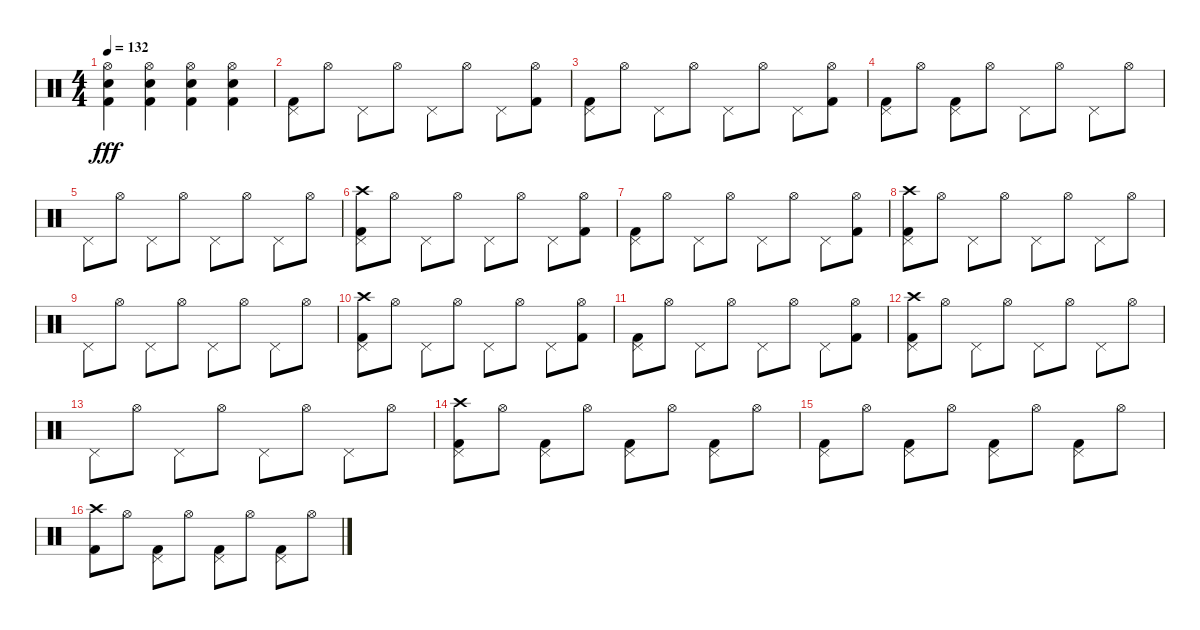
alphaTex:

\track "" {instrument percussion}
\staff {score}
\articulation defaults
\ts (4 4)
\tempo 132
\clef neutral
\ks c
("Hi-Hat (open)" "Snare (hit) 2" "Kick (hit) 2").4{dy fff} ("Hi-Hat (open)" "Snare (hit) 2" "Kick (hit) 2").4 ("Hi-Hat (open)" "Snare (hit) 2" "Kick (hit) 2").4 ("Hi-Hat (open)" "Snare (hit) 2" "Kick (hit) 2").4 |
("Pedal Hi-Hat (hit)" "Kick (hit) 2").8 "Hi-Hat (open)".8 "Pedal Hi-Hat (hit)".8 "Hi-Hat (open)".8 "Pedal Hi-Hat (hit)".8 "Hi-Hat (open)".8 "Pedal Hi-Hat (hit)".8 ("Hi-Hat (open)" "Kick (hit) 2").8 |
("Pedal Hi-Hat (hit)" "Kick (hit) 2").8 "Hi-Hat (open)".8 "Pedal Hi-Hat (hit)".8 "Hi-Hat (open)".8 "Pedal Hi-Hat (hit)".8 "Hi-Hat (open)".8 "Pedal Hi-Hat (hit)".8 ("Hi-Hat (open)" "Kick (hit) 2").8 |
("Pedal Hi-Hat (hit)" "Kick (hit) 2").8 "Hi-Hat (open)".8 ("Pedal Hi-Hat (hit)" "Kick (hit) 2").8 "Hi-Hat (open)".8 "Pedal Hi-Hat (hit)".8 "Hi-Hat (open)".8 "Pedal Hi-Hat (hit)".8 "Hi-Hat (open)".8 |
"Pedal Hi-Hat (hit)".8 "Hi-Hat (open)".8 "Pedal Hi-Hat (hit)".8 "Hi-Hat (open)".8 "Pedal Hi-Hat (hit)".8 "Hi-Hat (open)".8 "Pedal Hi-Hat (hit)".8 "Hi-Hat (open)".8 |
("Crash high (hit)" "Pedal Hi-Hat (hit)" "Kick (hit) 2").8 "Hi-Hat (open)".8 "Pedal Hi-Hat (hit)".8 "Hi-Hat (open)".8 "Pedal Hi-Hat (hit)".8 "Hi-Hat (open)".8 "Pedal Hi-Hat (hit)".8 ("Hi-Hat (open)" "Kick (hit) 2").8 |
("Pedal Hi-Hat (hit)" "Kick (hit) 2").8 "Hi-Hat (open)".8 "Pedal Hi-Hat (hit)".8 "Hi-Hat (open)".8 "Pedal Hi-Hat (hit)".8 "Hi-Hat (open)".8 "Pedal Hi-Hat (hit)".8 ("Hi-Hat (open)" "Kick (hit) 2").8 |
("Crash high (hit)" "Pedal Hi-Hat (hit)" "Kick (hit) 2").8 "Hi-Hat (open)".8 "Pedal Hi-Hat (hit)".8 "Hi-Hat (open)".8 "Pedal Hi-Hat (hit)".8 "Hi-Hat (open)".8 "Pedal Hi-Hat (hit)".8 "Hi-Hat (open)".8 |
"Pedal Hi-Hat (hit)".8 "Hi-Hat (open)".8 "Pedal Hi-Hat (hit)".8 "Hi-Hat (open)".8 "Pedal Hi-Hat (hit)".8 "Hi-Hat (open)".8 "Pedal Hi-Hat (hit)".8 "Hi-Hat (open)".8 |
("Crash high (hit)" "Pedal Hi-Hat (hit)" "Kick (hit) 2").8 "Hi-Hat (open)".8 "Pedal Hi-Hat (hit)".8 "Hi-Hat (open)".8 "Pedal Hi-Hat (hit)".8 "Hi-Hat (open)".8 "Pedal Hi-Hat (hit)".8 ("Hi-Hat (open)" "Kick (hit) 2").8 |
("Pedal Hi-Hat (hit)" "Kick (hit) 2").8 "Hi-Hat (open)".8 "Pedal Hi-Hat (hit)".8 "Hi-Hat (open)".8 "Pedal Hi-Hat (hit)".8 "Hi-Hat (open)".8 "Pedal Hi-Hat (hit)".8 ("Hi-Hat (open)" "Kick (hit) 2").8 |
("Crash high (hit)" "Pedal Hi-Hat (hit)" "Kick (hit) 2").8 "Hi-Hat (open)".8 "Pedal Hi-Hat (hit)".8 "Hi-Hat (open)".8 "Pedal Hi-Hat (hit)".8 "Hi-Hat (open)".8 "Pedal Hi-Hat (hit)".8 "Hi-Hat (open)".8 |
"Pedal Hi-Hat (hit)".8 "Hi-Hat (open)".8 "Pedal Hi-Hat (hit)".8 "Hi-Hat (open)".8 "Pedal Hi-Hat (hit)".8 "Hi-Hat (open)".8 "Pedal Hi-Hat (hit)".8 "Hi-Hat (open)".8 |
("Crash high (hit)" "Pedal Hi-Hat (hit)" "Kick (hit) 2").8 "Hi-Hat (open)".8 ("Pedal Hi-Hat (hit)" "Kick (hit) 2").8 "Hi-Hat (open)".8 ("Pedal Hi-Hat (hit)" "Kick (hit) 2").8 "Hi-Hat (open)".8 ("Pedal Hi-Hat (hit)" "Kick (hit) 2").8 "Hi-Hat (open)".8 |
("Pedal Hi-Hat (hit)" "Kick (hit) 2").8 "Hi-Hat (open)".8 ("Pedal Hi-Hat (hit)" "Kick (hit) 2").8 "Hi-Hat (open)".8 ("Pedal Hi-Hat (hit)" "Kick (hit) 2").8 "Hi-Hat (open)".8 ("Pedal Hi-Hat (hit)" "Kick (hit) 2").8 "Hi-Hat (open)".8 |
("Crash high (hit)" "Kick (hit) 2").8 "Hi-Hat (open)".8 ("Pedal Hi-Hat (hit)" "Kick (hit) 2").8 "Hi-Hat (open)".8 ("Pedal Hi-Hat (hit)" "Kick (hit) 2").8 "Hi-Hat (open)".8 ("Pedal Hi-Hat (hit)" "Kick (hit) 2").8 "Hi-Hat (open)".8
